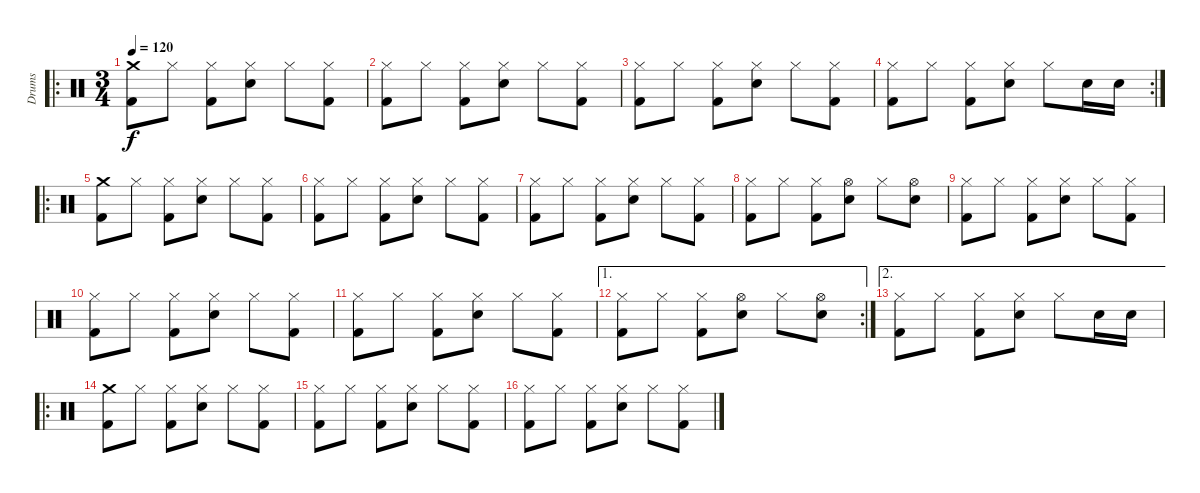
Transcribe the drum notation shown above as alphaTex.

\track ("Drums" "Drums") {instrument percussion}
\staff {score}
\articulation defaults
\ro
\ts (3 4)
\tempo 120
\clef neutral
\ks c
("Crash medium (hit)" "Kick (hit) 2").8{dy f} "Hi-Hat (closed)".8 ("Hi-Hat (closed)" "Kick (hit) 2").8 ("Hi-Hat (closed)" "Snare (hit) 2").8 "Hi-Hat (closed)".8 ("Hi-Hat (closed)" "Kick (hit) 2").8 |
("Hi-Hat (closed)" "Kick (hit) 2").8 "Hi-Hat (closed)".8 ("Hi-Hat (closed)" "Kick (hit) 2").8 ("Hi-Hat (closed)" "Snare (hit) 2").8 "Hi-Hat (closed)".8 ("Hi-Hat (closed)" "Kick (hit) 2").8 |
("Hi-Hat (closed)" "Kick (hit) 2").8 "Hi-Hat (closed)".8 ("Hi-Hat (closed)" "Kick (hit) 2").8 ("Hi-Hat (closed)" "Snare (hit) 2").8 "Hi-Hat (closed)".8 ("Hi-Hat (closed)" "Kick (hit) 2").8 |
\rc 2
("Hi-Hat (closed)" "Kick (hit) 2").8 "Hi-Hat (closed)".8 ("Hi-Hat (closed)" "Kick (hit) 2").8 ("Hi-Hat (closed)" "Snare (hit) 2").8 "Hi-Hat (closed)".8 "Snare (hit) 2".16 "Snare (hit) 2".16 |
\ro
("Crash medium (hit)" "Kick (hit) 2").8 "Hi-Hat (closed)".8 ("Hi-Hat (closed)" "Kick (hit) 2").8 ("Hi-Hat (closed)" "Snare (hit) 2").8 "Hi-Hat (closed)".8 ("Hi-Hat (closed)" "Kick (hit) 2").8 |
("Hi-Hat (closed)" "Kick (hit) 2").8 "Hi-Hat (closed)".8 ("Hi-Hat (closed)" "Kick (hit) 2").8 ("Hi-Hat (closed)" "Snare (hit) 2").8 "Hi-Hat (closed)".8 ("Hi-Hat (closed)" "Kick (hit) 2").8 |
("Hi-Hat (closed)" "Kick (hit) 2").8 "Hi-Hat (closed)".8 ("Hi-Hat (closed)" "Kick (hit) 2").8 ("Hi-Hat (closed)" "Snare (hit) 2").8 "Hi-Hat (closed)".8 ("Hi-Hat (closed)" "Kick (hit) 2").8 |
("Hi-Hat (closed)" "Kick (hit) 2").8 "Hi-Hat (closed)".8 ("Hi-Hat (closed)" "Kick (hit) 2").8 ("Hi-Hat (open)" "Snare (hit) 2").8 "Hi-Hat (closed)".8 ("Hi-Hat (open)" "Snare (hit) 2").8 |
("Hi-Hat (closed)" "Kick (hit) 2").8 "Hi-Hat (closed)".8 ("Hi-Hat (closed)" "Kick (hit) 2").8 ("Hi-Hat (closed)" "Snare (hit) 2").8 "Hi-Hat (closed)".8 ("Hi-Hat (closed)" "Kick (hit) 2").8 |
("Hi-Hat (closed)" "Kick (hit) 2").8 "Hi-Hat (closed)".8 ("Hi-Hat (closed)" "Kick (hit) 2").8 ("Hi-Hat (closed)" "Snare (hit) 2").8 "Hi-Hat (closed)".8 ("Hi-Hat (closed)" "Kick (hit) 2").8 |
("Hi-Hat (closed)" "Kick (hit) 2").8 "Hi-Hat (closed)".8 ("Hi-Hat (closed)" "Kick (hit) 2").8 ("Hi-Hat (closed)" "Snare (hit) 2").8 "Hi-Hat (closed)".8 ("Hi-Hat (closed)" "Kick (hit) 2").8 |
\ae 1
\rc 2
("Hi-Hat (closed)" "Kick (hit) 2").8 "Hi-Hat (closed)".8 ("Hi-Hat (closed)" "Kick (hit) 2").8 ("Hi-Hat (open)" "Snare (hit) 2").8 "Hi-Hat (closed)".8 ("Hi-Hat (open)" "Snare (hit) 2").8 |
\ae 2
("Hi-Hat (closed)" "Kick (hit) 2").8 "Hi-Hat (closed)".8 ("Hi-Hat (closed)" "Kick (hit) 2").8 ("Hi-Hat (closed)" "Snare (hit) 2").8 "Hi-Hat (closed)".8 "Snare (hit) 2".16 "Snare (hit) 2".16 |
\ro
("Crash medium (hit)" "Kick (hit) 2").8 "Hi-Hat (closed)".8 ("Hi-Hat (closed)" "Kick (hit) 2").8 ("Hi-Hat (closed)" "Snare (hit) 2").8 "Hi-Hat (closed)".8 ("Hi-Hat (closed)" "Kick (hit) 2").8 |
("Hi-Hat (closed)" "Kick (hit) 2").8 "Hi-Hat (closed)".8 ("Hi-Hat (closed)" "Kick (hit) 2").8 ("Hi-Hat (closed)" "Snare (hit) 2").8 "Hi-Hat (closed)".8 ("Hi-Hat (closed)" "Kick (hit) 2").8 |
("Hi-Hat (closed)" "Kick (hit) 2").8 "Hi-Hat (closed)".8 ("Hi-Hat (closed)" "Kick (hit) 2").8 ("Hi-Hat (closed)" "Snare (hit) 2").8 "Hi-Hat (closed)".8 ("Hi-Hat (closed)" "Kick (hit) 2").8
